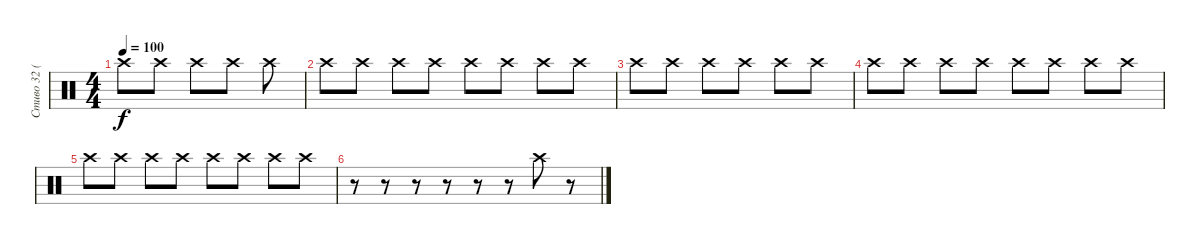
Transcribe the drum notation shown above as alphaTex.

\track ("Стиво 32 (Тарелки)" "Стиво 32 (") {instrument percussion}
\staff {score}
\articulation defaults
\ts (4 4)
\tempo 100
\clef neutral
\ks c "Crash high (hit)".8{dy f} "Crash high (hit)".8 "Crash high (hit)".8 "Crash high (hit)".8 "Crash high (hit)".8
|
"Crash high (hit)".8 "Crash high (hit)".8 "Crash high (hit)".8 "Crash high (hit)".8 "Crash high (hit)".8 "Crash high (hit)".8 "Crash high (hit)".8 "Crash high (hit)".8 |
"Crash high (hit)".8 "Crash high (hit)".8 "Crash high (hit)".8 "Crash high (hit)".8 "Crash high (hit)".8 "Crash high (hit)".8 |
"Crash high (hit)".8 "Crash high (hit)".8 "Crash high (hit)".8 "Crash high (hit)".8 "Crash high (hit)".8 "Crash high (hit)".8 "Crash high (hit)".8 "Crash high (hit)".8 |
"Crash high (hit)".8 "Crash high (hit)".8 "Crash high (hit)".8 "Crash high (hit)".8 "Crash high (hit)".8 "Crash high (hit)".8 "Crash high (hit)".8 "Crash high (hit)".8 |
r.8 r.8 r.8 r.8 r.8 r.8 "Crash high (hit)".8 r.8
